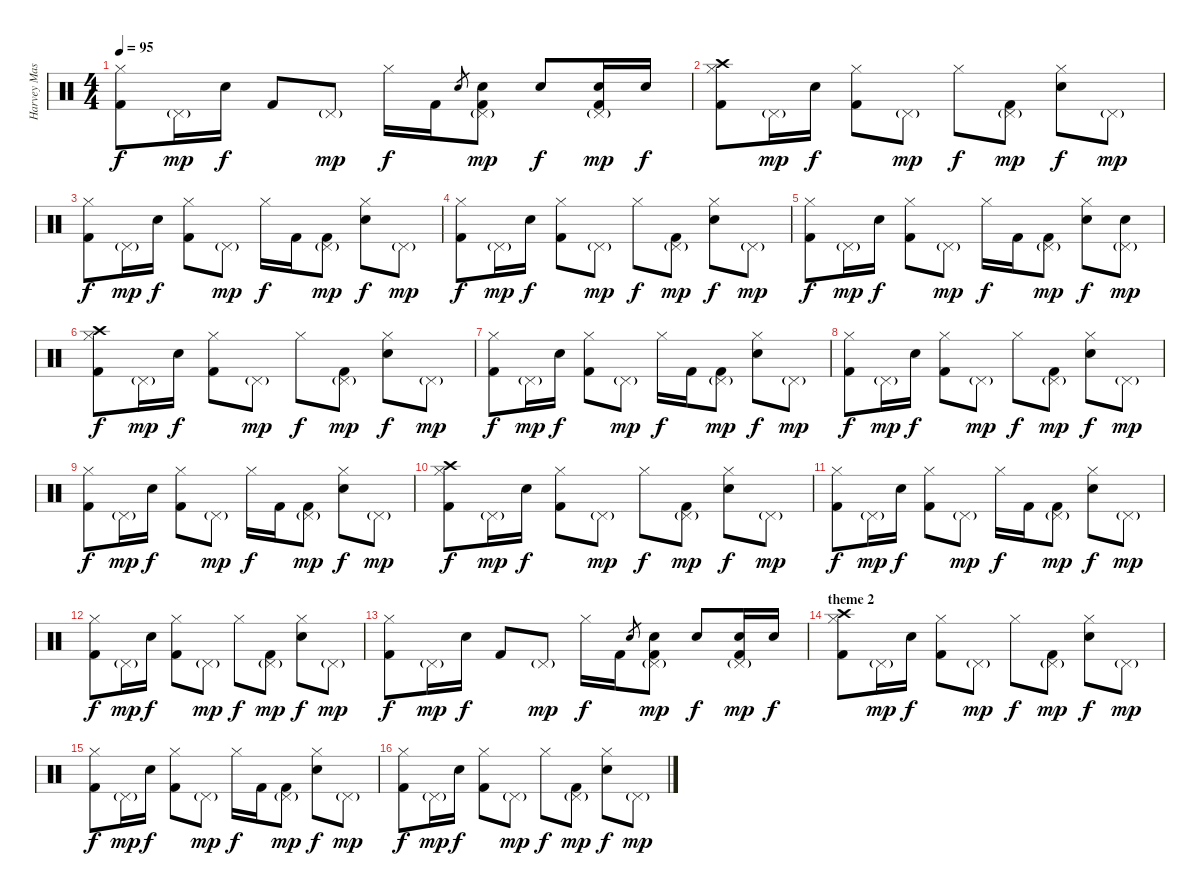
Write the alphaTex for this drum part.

\track ("Harvey Mason (batterie)" "Harvey Mas") {instrument percussion}
\staff {score}
\articulation defaults
\ts (4 4)
\tempo 95
\clef neutral
\ks c
("Kick (hit) 2" "Hi-Hat (closed)").8{dy f} "Pedal Hi-Hat (hit)"{g}.16{dy mp} "Electric Snare (hit)".16{dy f} "Kick (hit) 2".8 "Pedal Hi-Hat (hit)"{g}.8{dy mp} "Hi-Hat (closed)".16{dy f} "Kick (hit) 2".16 "Electric Snare (hit)".8{gr} ("Kick (hit) 2" "Pedal Hi-Hat (hit)"{g} "Electric Snare (hit)").8{dy mp} "Electric Snare (hit)".8{dy f} ("Electric Snare (hit)" "Pedal Hi-Hat (hit)"{g} "Kick (hit) 2").16{dy mp} "Electric Snare (hit)".16{dy f} |
("Kick (hit) 2" "Hi-Hat (closed)" "Crash high (hit)").8 "Pedal Hi-Hat (hit)"{g}.16{dy mp} "Electric Snare (hit)".16{dy f} ("Kick (hit) 2" "Hi-Hat (closed)").8 "Pedal Hi-Hat (hit)"{g}.8{dy mp} "Hi-Hat (closed)".8{dy f} ("Kick (hit) 2" "Pedal Hi-Hat (hit)"{g}).8{dy mp} ("Electric Snare (hit)" "Hi-Hat (closed)").8{dy f} "Pedal Hi-Hat (hit)"{g}.8{dy mp} |
("Kick (hit) 2" "Hi-Hat (closed)").8{dy f} "Pedal Hi-Hat (hit)"{g}.16{dy mp} "Electric Snare (hit)".16{dy f} ("Kick (hit) 2" "Hi-Hat (closed)").8 "Pedal Hi-Hat (hit)"{g}.8{dy mp} "Hi-Hat (closed)".16{dy f} "Kick (hit) 2".16 ("Kick (hit) 2" "Pedal Hi-Hat (hit)"{g}).8{dy mp} ("Electric Snare (hit)" "Hi-Hat (closed)").8{dy f} "Pedal Hi-Hat (hit)"{g}.8{dy mp} |
("Kick (hit) 2" "Hi-Hat (closed)").8{dy f} "Pedal Hi-Hat (hit)"{g}.16{dy mp} "Electric Snare (hit)".16{dy f} ("Kick (hit) 2" "Hi-Hat (closed)").8 "Pedal Hi-Hat (hit)"{g}.8{dy mp} "Hi-Hat (closed)".8{dy f} ("Kick (hit) 2" "Pedal Hi-Hat (hit)"{g}).8{dy mp} ("Electric Snare (hit)" "Hi-Hat (closed)").8{dy f} "Pedal Hi-Hat (hit)"{g}.8{dy mp} |
("Kick (hit) 2" "Hi-Hat (closed)").8{dy f} "Pedal Hi-Hat (hit)"{g}.16{dy mp} "Electric Snare (hit)".16{dy f} ("Kick (hit) 2" "Hi-Hat (closed)").8 "Pedal Hi-Hat (hit)"{g}.8{dy mp} "Hi-Hat (closed)".16{dy f} "Kick (hit) 2".16 ("Kick (hit) 2" "Pedal Hi-Hat (hit)"{g}).8{dy mp} ("Electric Snare (hit)" "Hi-Hat (closed)").8{dy f} ("Electric Snare (hit)" "Pedal Hi-Hat (hit)"{g}).8{dy mp} |
("Kick (hit) 2" "Hi-Hat (closed)" "Crash high (hit)").8{dy f} "Pedal Hi-Hat (hit)"{g}.16{dy mp} "Electric Snare (hit)".16{dy f} ("Kick (hit) 2" "Hi-Hat (closed)").8 "Pedal Hi-Hat (hit)"{g}.8{dy mp} "Hi-Hat (closed)".8{dy f} ("Kick (hit) 2" "Pedal Hi-Hat (hit)"{g}).8{dy mp} ("Electric Snare (hit)" "Hi-Hat (closed)").8{dy f} "Pedal Hi-Hat (hit)"{g}.8{dy mp} |
("Kick (hit) 2" "Hi-Hat (closed)").8{dy f} "Pedal Hi-Hat (hit)"{g}.16{dy mp} "Electric Snare (hit)".16{dy f} ("Kick (hit) 2" "Hi-Hat (closed)").8 "Pedal Hi-Hat (hit)"{g}.8{dy mp} "Hi-Hat (closed)".16{dy f} "Kick (hit) 2".16 ("Kick (hit) 2" "Pedal Hi-Hat (hit)"{g}).8{dy mp} ("Electric Snare (hit)" "Hi-Hat (closed)").8{dy f} "Pedal Hi-Hat (hit)"{g}.8{dy mp} |
("Kick (hit) 2" "Hi-Hat (closed)").8{dy f} "Pedal Hi-Hat (hit)"{g}.16{dy mp} "Electric Snare (hit)".16{dy f} ("Kick (hit) 2" "Hi-Hat (closed)").8 "Pedal Hi-Hat (hit)"{g}.8{dy mp} "Hi-Hat (closed)".8{dy f} ("Kick (hit) 2" "Pedal Hi-Hat (hit)"{g}).8{dy mp} ("Electric Snare (hit)" "Hi-Hat (closed)").8{dy f} "Pedal Hi-Hat (hit)"{g}.8{dy mp} |
("Kick (hit) 2" "Hi-Hat (closed)").8{dy f} "Pedal Hi-Hat (hit)"{g}.16{dy mp} "Electric Snare (hit)".16{dy f} ("Kick (hit) 2" "Hi-Hat (closed)").8 "Pedal Hi-Hat (hit)"{g}.8{dy mp} "Hi-Hat (closed)".16{dy f} "Kick (hit) 2".16 ("Kick (hit) 2" "Pedal Hi-Hat (hit)"{g}).8{dy mp} ("Electric Snare (hit)" "Hi-Hat (closed)").8{dy f} "Pedal Hi-Hat (hit)"{g}.8{dy mp} |
("Kick (hit) 2" "Hi-Hat (closed)" "Crash high (hit)").8{dy f} "Pedal Hi-Hat (hit)"{g}.16{dy mp} "Electric Snare (hit)".16{dy f} ("Kick (hit) 2" "Hi-Hat (closed)").8 "Pedal Hi-Hat (hit)"{g}.8{dy mp} "Hi-Hat (closed)".8{dy f} ("Kick (hit) 2" "Pedal Hi-Hat (hit)"{g}).8{dy mp} ("Electric Snare (hit)" "Hi-Hat (closed)").8{dy f} "Pedal Hi-Hat (hit)"{g}.8{dy mp} |
("Kick (hit) 2" "Hi-Hat (closed)").8{dy f} "Pedal Hi-Hat (hit)"{g}.16{dy mp} "Electric Snare (hit)".16{dy f} ("Kick (hit) 2" "Hi-Hat (closed)").8 "Pedal Hi-Hat (hit)"{g}.8{dy mp} "Hi-Hat (closed)".16{dy f} "Kick (hit) 2".16 ("Kick (hit) 2" "Pedal Hi-Hat (hit)"{g}).8{dy mp} ("Electric Snare (hit)" "Hi-Hat (closed)").8{dy f} "Pedal Hi-Hat (hit)"{g}.8{dy mp} |
("Kick (hit) 2" "Hi-Hat (closed)").8{dy f} "Pedal Hi-Hat (hit)"{g}.16{dy mp} "Electric Snare (hit)".16{dy f} ("Kick (hit) 2" "Hi-Hat (closed)").8 "Pedal Hi-Hat (hit)"{g}.8{dy mp} "Hi-Hat (closed)".8{dy f} ("Kick (hit) 2" "Pedal Hi-Hat (hit)"{g}).8{dy mp} ("Electric Snare (hit)" "Hi-Hat (closed)").8{dy f} "Pedal Hi-Hat (hit)"{g}.8{dy mp} |
("Kick (hit) 2" "Hi-Hat (closed)").8{dy f} "Pedal Hi-Hat (hit)"{g}.16{dy mp} "Electric Snare (hit)".16{dy f} "Kick (hit) 2".8 "Pedal Hi-Hat (hit)"{g}.8{dy mp} "Hi-Hat (closed)".16{dy f} "Kick (hit) 2".16 "Electric Snare (hit)".8{gr} ("Kick (hit) 2" "Pedal Hi-Hat (hit)"{g} "Electric Snare (hit)").8{dy mp} "Electric Snare (hit)".8{dy f} ("Electric Snare (hit)" "Pedal Hi-Hat (hit)"{g} "Kick (hit) 2").16{dy mp} "Electric Snare (hit)".16{dy f} |
\section ("" "theme 2")
("Kick (hit) 2" "Hi-Hat (closed)" "Crash high (hit)").8 "Pedal Hi-Hat (hit)"{g}.16{dy mp} "Electric Snare (hit)".16{dy f} ("Kick (hit) 2" "Hi-Hat (closed)").8 "Pedal Hi-Hat (hit)"{g}.8{dy mp} "Hi-Hat (closed)".8{dy f} ("Kick (hit) 2" "Pedal Hi-Hat (hit)"{g}).8{dy mp} ("Electric Snare (hit)" "Hi-Hat (closed)").8{dy f} "Pedal Hi-Hat (hit)"{g}.8{dy mp} |
("Kick (hit) 2" "Hi-Hat (closed)").8{dy f} "Pedal Hi-Hat (hit)"{g}.16{dy mp} "Electric Snare (hit)".16{dy f} ("Kick (hit) 2" "Hi-Hat (closed)").8 "Pedal Hi-Hat (hit)"{g}.8{dy mp} "Hi-Hat (closed)".16{dy f} "Kick (hit) 2".16 ("Kick (hit) 2" "Pedal Hi-Hat (hit)"{g}).8{dy mp} ("Electric Snare (hit)" "Hi-Hat (closed)").8{dy f} "Pedal Hi-Hat (hit)"{g}.8{dy mp} |
("Kick (hit) 2" "Hi-Hat (closed)").8{dy f} "Pedal Hi-Hat (hit)"{g}.16{dy mp} "Electric Snare (hit)".16{dy f} ("Kick (hit) 2" "Hi-Hat (closed)").8 "Pedal Hi-Hat (hit)"{g}.8{dy mp} "Hi-Hat (closed)".8{dy f} ("Kick (hit) 2" "Pedal Hi-Hat (hit)"{g}).8{dy mp} ("Electric Snare (hit)" "Hi-Hat (closed)").8{dy f} "Pedal Hi-Hat (hit)"{g}.8{dy mp}
